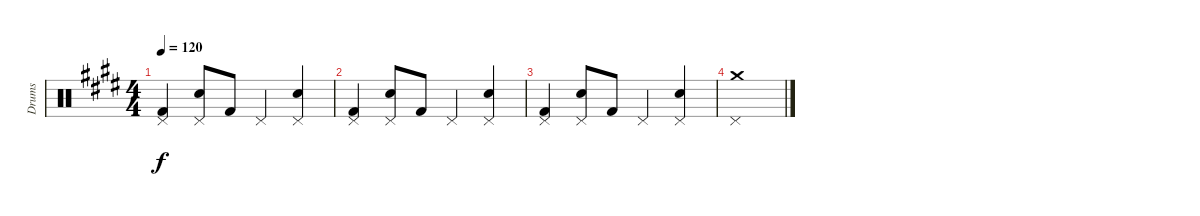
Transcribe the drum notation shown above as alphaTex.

\track ("Drums" "Drums") {instrument percussion}
\staff {score}
\articulation defaults
\ts (4 4)
\tempo 120
\clef neutral
\ks e
("Kick (hit) 2" "Pedal Hi-Hat (hit)").4{dy f} ("Snare (hit) 2" "Pedal Hi-Hat (hit)").8 "Kick (hit) 2".8 "Pedal Hi-Hat (hit)".4 ("Snare (hit) 2" "Pedal Hi-Hat (hit)").4 |
("Kick (hit) 2" "Pedal Hi-Hat (hit)").4 ("Snare (hit) 2" "Pedal Hi-Hat (hit)").8 "Kick (hit) 2".8 "Pedal Hi-Hat (hit)".4 ("Snare (hit) 2" "Pedal Hi-Hat (hit)").4 |
("Kick (hit) 2" "Pedal Hi-Hat (hit)").4 ("Snare (hit) 2" "Pedal Hi-Hat (hit)").8 "Kick (hit) 2".8 "Pedal Hi-Hat (hit)".4 ("Snare (hit) 2" "Pedal Hi-Hat (hit)").4 |
("Crash medium (hit)" "Pedal Hi-Hat (hit)").1
